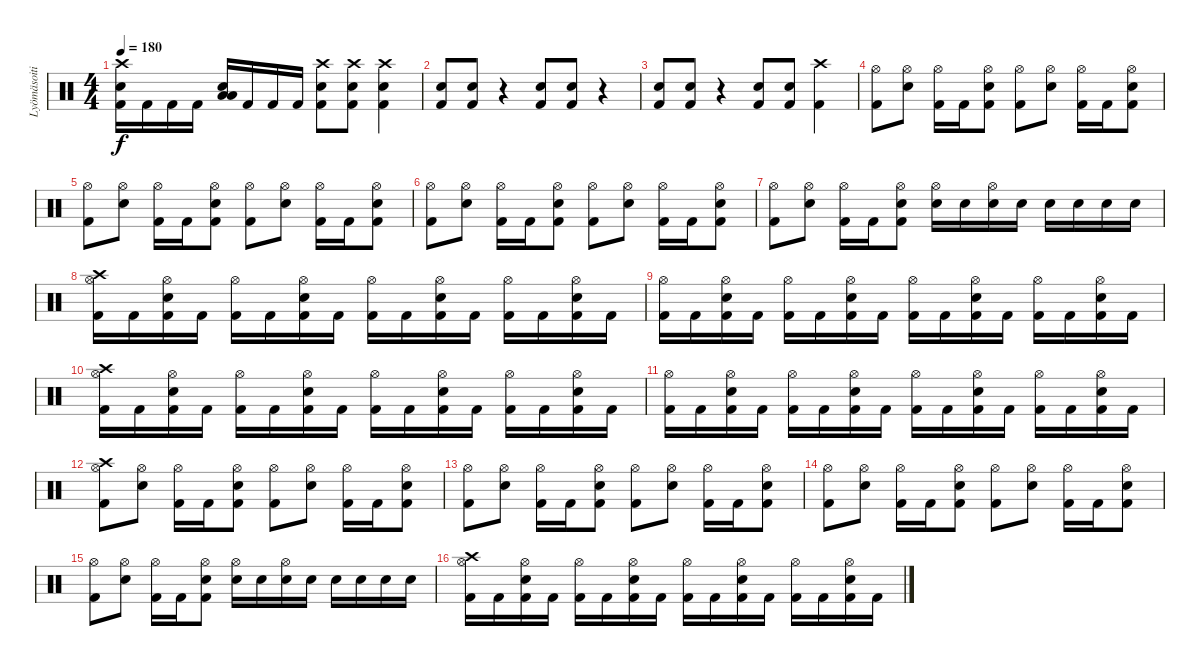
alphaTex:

\track ("Lyömäsoitin" "Lyömäsoiti") {instrument percussion}
\staff {score}
\articulation defaults
\ts (4 4)
\tempo 180
\clef neutral
\ks c
("Kick (hit) 2" "Snare (hit) 2" "Crash high (hit)").16{dy f} "Kick (hit) 2".16 "Kick (hit) 2".16 "Kick (hit) 2".16 ("Snare (hit) 2" "Low Floor Tom (hit)" "Low Floor Tom (hit)").16 "Kick (hit) 2".16 "Kick (hit) 2".16 "Kick (hit) 2".16 ("Kick (hit) 2" "Snare (hit) 2" "Crash high (hit)").8 ("Kick (hit) 2" "Snare (hit) 2" "Crash high (hit)").8 ("Kick (hit) 2" "Snare (hit) 2" "Crash high (hit)").4 |
("Kick (hit) 2" "Snare (hit) 2").8 ("Kick (hit) 2" "Snare (hit) 2").8 r.4 ("Kick (hit) 2" "Snare (hit) 2").8 ("Kick (hit) 2" "Snare (hit) 2").8 r.4 |
("Kick (hit) 2" "Snare (hit) 2").8 ("Kick (hit) 2" "Snare (hit) 2").8 r.4 ("Kick (hit) 2" "Snare (hit) 2").8 ("Kick (hit) 2" "Snare (hit) 2").8 ("Kick (hit) 2" "Crash high (hit)").4 |
("Kick (hit) 2" "Hi-Hat (open)").8 ("Snare (hit) 2" "Hi-Hat (open)").8 ("Kick (hit) 2" "Hi-Hat (open)").16 "Kick (hit) 2".16 ("Kick (hit) 2" "Snare (hit) 2" "Hi-Hat (open)").8 ("Kick (hit) 2" "Hi-Hat (open)").8 ("Snare (hit) 2" "Hi-Hat (open)").8 ("Kick (hit) 2" "Hi-Hat (open)").16 "Kick (hit) 2".16 ("Kick (hit) 2" "Snare (hit) 2" "Hi-Hat (open)").8 |
("Kick (hit) 2" "Hi-Hat (open)").8 ("Snare (hit) 2" "Hi-Hat (open)").8 ("Kick (hit) 2" "Hi-Hat (open)").16 "Kick (hit) 2".16 ("Kick (hit) 2" "Snare (hit) 2" "Hi-Hat (open)").8 ("Kick (hit) 2" "Hi-Hat (open)").8 ("Snare (hit) 2" "Hi-Hat (open)").8 ("Kick (hit) 2" "Hi-Hat (open)").16 "Kick (hit) 2".16 ("Kick (hit) 2" "Snare (hit) 2" "Hi-Hat (open)").8 |
("Kick (hit) 2" "Hi-Hat (open)").8 ("Snare (hit) 2" "Hi-Hat (open)").8 ("Kick (hit) 2" "Hi-Hat (open)").16 "Kick (hit) 2".16 ("Kick (hit) 2" "Snare (hit) 2" "Hi-Hat (open)").8 ("Kick (hit) 2" "Hi-Hat (open)").8 ("Snare (hit) 2" "Hi-Hat (open)").8 ("Kick (hit) 2" "Hi-Hat (open)").16 "Kick (hit) 2".16 ("Kick (hit) 2" "Snare (hit) 2" "Hi-Hat (open)").8 |
("Kick (hit) 2" "Hi-Hat (open)").8 ("Snare (hit) 2" "Hi-Hat (open)").8 ("Kick (hit) 2" "Hi-Hat (open)").16 "Kick (hit) 2".16 ("Kick (hit) 2" "Snare (hit) 2" "Hi-Hat (open)").8 ("Snare (hit) 2" "Hi-Hat (open)").16 "Snare (hit) 2".16 ("Snare (hit) 2" "Hi-Hat (open)").16 "Snare (hit) 2".16 "Snare (hit) 2".16 "Snare (hit) 2".16 "Snare (hit) 2".16 "Snare (hit) 2".16 |
("Kick (hit) 2" "Crash high (hit)" "Hi-Hat (open)").16 "Kick (hit) 2".16 ("Kick (hit) 2" "Snare (hit) 2" "Hi-Hat (open)").16 "Kick (hit) 2".16 ("Kick (hit) 2" "Hi-Hat (open)").16 "Kick (hit) 2".16 ("Kick (hit) 2" "Snare (hit) 2" "Hi-Hat (open)").16 "Kick (hit) 2".16 ("Kick (hit) 2" "Hi-Hat (open)").16 "Kick (hit) 2".16 ("Kick (hit) 2" "Snare (hit) 2" "Hi-Hat (open)").16 "Kick (hit) 2".16 ("Kick (hit) 2" "Hi-Hat (open)").16 "Kick (hit) 2".16 ("Kick (hit) 2" "Snare (hit) 2" "Hi-Hat (open)").16 "Kick (hit) 2".16 |
("Kick (hit) 2" "Hi-Hat (open)").16 "Kick (hit) 2".16 ("Kick (hit) 2" "Snare (hit) 2" "Hi-Hat (open)").16 "Kick (hit) 2".16 ("Kick (hit) 2" "Hi-Hat (open)").16 "Kick (hit) 2".16 ("Kick (hit) 2" "Snare (hit) 2" "Hi-Hat (open)").16 "Kick (hit) 2".16 ("Kick (hit) 2" "Hi-Hat (open)").16 "Kick (hit) 2".16 ("Kick (hit) 2" "Snare (hit) 2" "Hi-Hat (open)").16 "Kick (hit) 2".16 ("Kick (hit) 2" "Hi-Hat (open)").16 "Kick (hit) 2".16 ("Kick (hit) 2" "Snare (hit) 2" "Hi-Hat (open)").16 "Kick (hit) 2".16 |
("Kick (hit) 2" "Crash high (hit)" "Hi-Hat (open)").16 "Kick (hit) 2".16 ("Kick (hit) 2" "Snare (hit) 2" "Hi-Hat (open)").16 "Kick (hit) 2".16 ("Kick (hit) 2" "Hi-Hat (open)").16 "Kick (hit) 2".16 ("Kick (hit) 2" "Snare (hit) 2" "Hi-Hat (open)").16 "Kick (hit) 2".16 ("Kick (hit) 2" "Hi-Hat (open)").16 "Kick (hit) 2".16 ("Kick (hit) 2" "Snare (hit) 2" "Hi-Hat (open)").16 "Kick (hit) 2".16 ("Kick (hit) 2" "Hi-Hat (open)").16 "Kick (hit) 2".16 ("Kick (hit) 2" "Snare (hit) 2" "Hi-Hat (open)").16 "Kick (hit) 2".16 |
("Kick (hit) 2" "Hi-Hat (open)").16 "Kick (hit) 2".16 ("Kick (hit) 2" "Snare (hit) 2" "Hi-Hat (open)").16 "Kick (hit) 2".16 ("Kick (hit) 2" "Hi-Hat (open)").16 "Kick (hit) 2".16 ("Kick (hit) 2" "Snare (hit) 2" "Hi-Hat (open)").16 "Kick (hit) 2".16 ("Kick (hit) 2" "Hi-Hat (open)").16 "Kick (hit) 2".16 ("Kick (hit) 2" "Snare (hit) 2" "Hi-Hat (open)").16 "Kick (hit) 2".16 ("Kick (hit) 2" "Hi-Hat (open)").16 "Kick (hit) 2".16 ("Kick (hit) 2" "Snare (hit) 2" "Hi-Hat (open)").16 "Kick (hit) 2".16 |
("Kick (hit) 2" "Crash high (hit)" "Hi-Hat (open)").8 ("Snare (hit) 2" "Hi-Hat (open)").8 ("Kick (hit) 2" "Hi-Hat (open)").16 "Kick (hit) 2".16 ("Kick (hit) 2" "Snare (hit) 2" "Hi-Hat (open)").8 ("Kick (hit) 2" "Hi-Hat (open)").8 ("Snare (hit) 2" "Hi-Hat (open)").8 ("Kick (hit) 2" "Hi-Hat (open)").16 "Kick (hit) 2".16 ("Kick (hit) 2" "Snare (hit) 2" "Hi-Hat (open)").8 |
("Kick (hit) 2" "Hi-Hat (open)").8 ("Snare (hit) 2" "Hi-Hat (open)").8 ("Kick (hit) 2" "Hi-Hat (open)").16 "Kick (hit) 2".16 ("Kick (hit) 2" "Snare (hit) 2" "Hi-Hat (open)").8 ("Kick (hit) 2" "Hi-Hat (open)").8 ("Snare (hit) 2" "Hi-Hat (open)").8 ("Kick (hit) 2" "Hi-Hat (open)").16 "Kick (hit) 2".16 ("Kick (hit) 2" "Snare (hit) 2" "Hi-Hat (open)").8 |
("Kick (hit) 2" "Hi-Hat (open)").8 ("Snare (hit) 2" "Hi-Hat (open)").8 ("Kick (hit) 2" "Hi-Hat (open)").16 "Kick (hit) 2".16 ("Kick (hit) 2" "Snare (hit) 2" "Hi-Hat (open)").8 ("Kick (hit) 2" "Hi-Hat (open)").8 ("Snare (hit) 2" "Hi-Hat (open)").8 ("Kick (hit) 2" "Hi-Hat (open)").16 "Kick (hit) 2".16 ("Kick (hit) 2" "Snare (hit) 2" "Hi-Hat (open)").8 |
("Kick (hit) 2" "Hi-Hat (open)").8 ("Snare (hit) 2" "Hi-Hat (open)").8 ("Kick (hit) 2" "Hi-Hat (open)").16 "Kick (hit) 2".16 ("Kick (hit) 2" "Snare (hit) 2" "Hi-Hat (open)").8 ("Snare (hit) 2" "Hi-Hat (open)").16 "Snare (hit) 2".16 ("Snare (hit) 2" "Hi-Hat (open)").16 "Snare (hit) 2".16 "Snare (hit) 2".16 "Snare (hit) 2".16 "Snare (hit) 2".16 "Snare (hit) 2".16 |
("Kick (hit) 2" "Crash high (hit)" "Hi-Hat (open)").16 "Kick (hit) 2".16 ("Kick (hit) 2" "Snare (hit) 2" "Hi-Hat (open)").16 "Kick (hit) 2".16 ("Kick (hit) 2" "Hi-Hat (open)").16 "Kick (hit) 2".16 ("Kick (hit) 2" "Snare (hit) 2" "Hi-Hat (open)").16 "Kick (hit) 2".16 ("Kick (hit) 2" "Hi-Hat (open)").16 "Kick (hit) 2".16 ("Kick (hit) 2" "Snare (hit) 2" "Hi-Hat (open)").16 "Kick (hit) 2".16 ("Kick (hit) 2" "Hi-Hat (open)").16 "Kick (hit) 2".16 ("Kick (hit) 2" "Snare (hit) 2" "Hi-Hat (open)").16 "Kick (hit) 2".16
